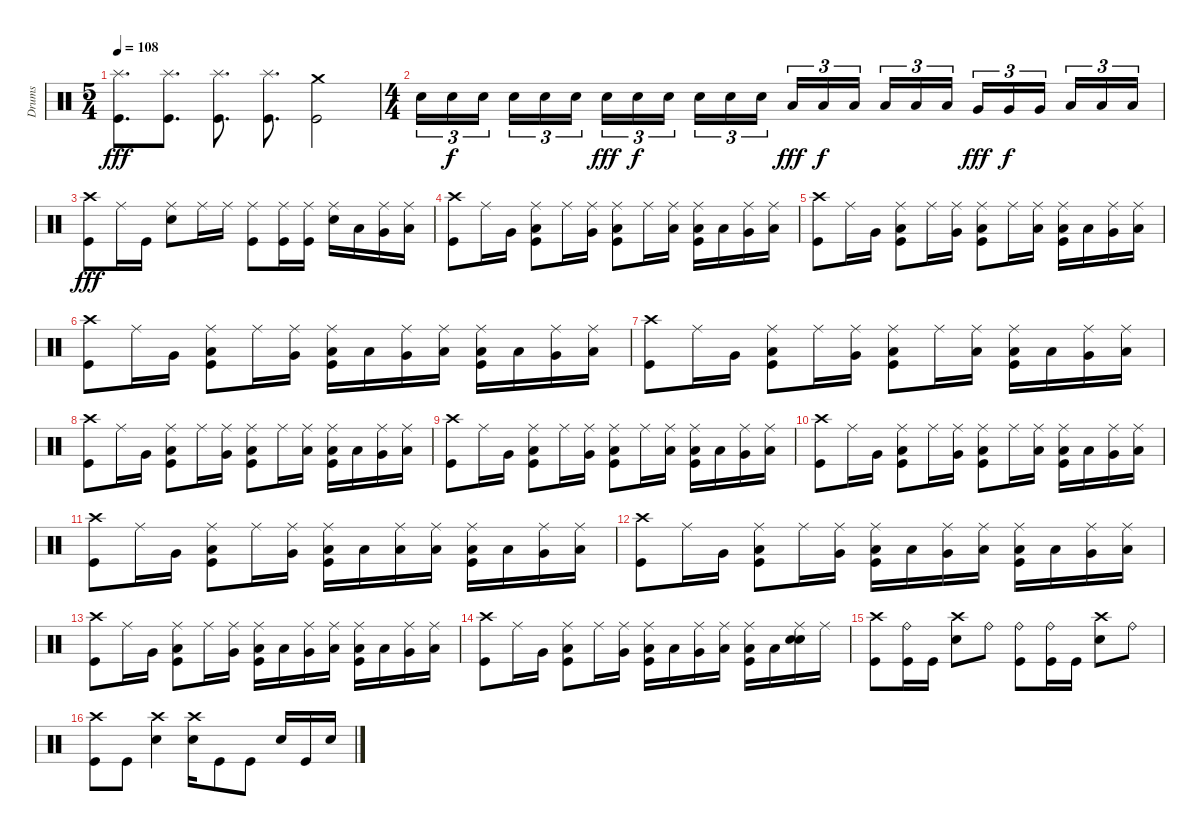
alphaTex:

\track ("Drums" "Drums") {instrument percussion}
\staff {score}
\articulation defaults
\ts (5 4)
\tempo 108
\clef neutral
\ks c
("Splash (hit)" "Kick (hit)").8{d dy fff} ("Splash (hit)" "Kick (hit)").8{d} ("Splash (hit)" "Kick (hit)").8{d} ("Splash (hit)" "Kick (hit)").8{d} ("Crash medium (hit)" "Kick (hit)").2 |
\ts (4 4)
"Electric Snare (hit)".16{tu (3 2)} "Electric Snare (hit)".16{tu (3 2) dy f} "Electric Snare (hit)".16{tu (3 2)} "Electric Snare (hit)".16{tu (3 2)} "Electric Snare (hit)".16{tu (3 2)} "Electric Snare (hit)".16{tu (3 2)} "Electric Snare (hit)".16{tu (3 2) dy fff} "Electric Snare (hit)".16{tu (3 2) dy f} "Electric Snare (hit)".16{tu (3 2)} "Electric Snare (hit)".16{tu (3 2)} "Electric Snare (hit)".16{tu (3 2)} "Electric Snare (hit)".16{tu (3 2)} "Low Tom (hit)".16{tu (3 2) dy fff} "Low Tom (hit)".16{tu (3 2) dy f} "Low Tom (hit)".16{tu (3 2)} "Low Tom (hit)".16{tu (3 2)} "Low Tom (hit)".16{tu (3 2)} "Low Tom (hit)".16{tu (3 2)} "Very Low Tom (hit)".16{tu (3 2) dy fff} "Very Low Tom (hit)".16{tu (3 2) dy f} "Very Low Tom (hit)".16{tu (3 2)} "Low Floor Tom (hit)".16{tu (3 2)} "Low Floor Tom (hit)".16{tu (3 2)} "Low Floor Tom (hit)".16{tu (3 2)} |
("Crash high (hit)" "Kick (hit)").8{dy fff} "Ride (middle)".16 "Kick (hit)".16 ("Ride (middle)" "Snare (hit) 2").8 "Ride (middle)".16 "Ride (middle)".16 ("Ride (middle)" "Kick (hit)").8 ("Ride (middle)" "Kick (hit)").16 ("Ride (middle)" "Kick (hit)").16 ("Ride (middle)" "Snare (hit) 2").16 "Low Tom (hit)".16 ("Ride (middle)" "Very Low Tom (hit)").16 ("Ride (middle)" "Low Floor Tom (hit)").16 |
("Crash high (hit)" "Kick (hit)").8 "Ride (middle)".16 "Very Low Tom (hit)".16 ("Ride (middle)" "Low Tom (hit)" "Kick (hit)").8 "Ride (middle)".16 ("Ride (middle)" "Very Low Tom (hit)").16 ("Ride (middle)" "Low Tom (hit)" "Kick (hit)").8 "Ride (middle)".16 ("Ride (middle)" "Low Tom (hit)").16 ("Ride (middle)" "Low Tom (hit)" "Kick (hit)").16 "Low Tom (hit)".16 ("Ride (middle)" "Very Low Tom (hit)").16 ("Ride (middle)" "Low Floor Tom (hit)").16 |
("Crash high (hit)" "Kick (hit)").8 "Ride (middle)".16 "Very Low Tom (hit)".16 ("Ride (middle)" "Low Tom (hit)" "Kick (hit)").8 "Ride (middle)".16 ("Ride (middle)" "Very Low Tom (hit)").16 ("Ride (middle)" "Low Tom (hit)" "Kick (hit)").8 "Ride (middle)".16 ("Ride (middle)" "Low Tom (hit)").16 ("Ride (middle)" "Low Tom (hit)" "Kick (hit)").16 "Low Tom (hit)".16 ("Ride (middle)" "Very Low Tom (hit)").16 ("Ride (middle)" "Low Floor Tom (hit)").16 |
("Crash high (hit)" "Kick (hit)").8 "Ride (middle)".16 "Very Low Tom (hit)".16 ("Ride (middle)" "Low Tom (hit)" "Kick (hit)").8 "Ride (middle)".16 ("Ride (middle)" "Very Low Tom (hit)").16 ("Ride (middle)" "Low Tom (hit)" "Kick (hit)").16 "Low Tom (hit)".16 ("Ride (middle)" "Very Low Tom (hit)").16 ("Ride (middle)" "Low Floor Tom (hit)").16 ("Ride (middle)" "Low Tom (hit)" "Kick (hit)").16 "Low Tom (hit)".16 ("Ride (middle)" "Very Low Tom (hit)").16 ("Ride (middle)" "Low Floor Tom (hit)").16 |
("Crash high (hit)" "Kick (hit)").8 "Ride (middle)".16 "Very Low Tom (hit)".16 ("Ride (middle)" "Low Tom (hit)" "Kick (hit)").8 "Ride (middle)".16 ("Ride (middle)" "Very Low Tom (hit)").16 ("Ride (middle)" "Low Tom (hit)" "Kick (hit)").8 "Ride (middle)".16 ("Ride (middle)" "Low Tom (hit)").16 ("Ride (middle)" "Low Tom (hit)" "Kick (hit)").16 "Low Tom (hit)".16 ("Ride (middle)" "Very Low Tom (hit)").16 ("Ride (middle)" "Low Floor Tom (hit)").16 |
("Crash high (hit)" "Kick (hit)").8 "Ride (middle)".16 "Very Low Tom (hit)".16 ("Ride (middle)" "Low Tom (hit)" "Kick (hit)").8 "Ride (middle)".16 ("Ride (middle)" "Very Low Tom (hit)").16 ("Ride (middle)" "Low Tom (hit)" "Kick (hit)").8 "Ride (middle)".16 ("Ride (middle)" "Low Tom (hit)").16 ("Ride (middle)" "Low Tom (hit)" "Kick (hit)").16 "Low Tom (hit)".16 ("Ride (middle)" "Very Low Tom (hit)").16 ("Ride (middle)" "Low Floor Tom (hit)").16 |
("Crash high (hit)" "Kick (hit)").8 "Ride (middle)".16 "Very Low Tom (hit)".16 ("Ride (middle)" "Low Tom (hit)" "Kick (hit)").8 "Ride (middle)".16 ("Ride (middle)" "Very Low Tom (hit)").16 ("Ride (middle)" "Low Tom (hit)" "Kick (hit)").8 "Ride (middle)".16 ("Ride (middle)" "Low Tom (hit)").16 ("Ride (middle)" "Low Tom (hit)" "Kick (hit)").16 "Low Tom (hit)".16 ("Ride (middle)" "Very Low Tom (hit)").16 ("Ride (middle)" "Low Floor Tom (hit)").16 |
("Crash high (hit)" "Kick (hit)").8 "Ride (middle)".16 "Very Low Tom (hit)".16 ("Ride (middle)" "Low Tom (hit)" "Kick (hit)").8 "Ride (middle)".16 ("Ride (middle)" "Very Low Tom (hit)").16 ("Ride (middle)" "Low Tom (hit)" "Kick (hit)").8 "Ride (middle)".16 ("Ride (middle)" "Low Tom (hit)").16 ("Ride (middle)" "Low Tom (hit)" "Kick (hit)").16 "Low Tom (hit)".16 ("Ride (middle)" "Very Low Tom (hit)").16 ("Ride (middle)" "Low Floor Tom (hit)").16 |
("Crash high (hit)" "Kick (hit)").8 "Ride (middle)".16 "Very Low Tom (hit)".16 ("Ride (middle)" "Low Tom (hit)" "Kick (hit)").8 "Ride (middle)".16 ("Ride (middle)" "Very Low Tom (hit)").16 ("Ride (middle)" "Low Tom (hit)" "Kick (hit)").16 "Low Tom (hit)".16 ("Ride (middle)" "Low Tom (hit)").16 ("Ride (middle)" "Low Tom (hit)").16 ("Ride (middle)" "Low Tom (hit)" "Kick (hit)").16 "Low Tom (hit)".16 ("Ride (middle)" "Very Low Tom (hit)").16 ("Ride (middle)" "Low Floor Tom (hit)").16 |
("Crash high (hit)" "Kick (hit)").8 "Ride (middle)".16 "Very Low Tom (hit)".16 ("Ride (middle)" "Low Tom (hit)" "Kick (hit)").8 "Ride (middle)".16 ("Ride (middle)" "Very Low Tom (hit)").16 ("Ride (middle)" "Low Tom (hit)" "Kick (hit)").16 "Low Tom (hit)".16 ("Ride (middle)" "Very Low Tom (hit)").16 ("Ride (middle)" "Low Floor Tom (hit)").16 ("Ride (middle)" "Low Tom (hit)" "Kick (hit)").16 "Low Tom (hit)".16 ("Ride (middle)" "Very Low Tom (hit)").16 ("Ride (middle)" "Low Floor Tom (hit)").16 |
("Crash high (hit)" "Kick (hit)").8 "Ride (middle)".16 "Very Low Tom (hit)".16 ("Ride (middle)" "Low Tom (hit)" "Kick (hit)").8 "Ride (middle)".16 ("Ride (middle)" "Very Low Tom (hit)").16 ("Ride (middle)" "Low Tom (hit)" "Kick (hit)").16 "Low Tom (hit)".16 ("Ride (middle)" "Very Low Tom (hit)").16 ("Ride (middle)" "Low Floor Tom (hit)").16 ("Ride (middle)" "Low Tom (hit)" "Kick (hit)").16 "Low Tom (hit)".16 ("Ride (middle)" "Very Low Tom (hit)").16 ("Ride (middle)" "Low Floor Tom (hit)").16 |
("Crash high (hit)" "Kick (hit)").8 "Ride (middle)".16 "Very Low Tom (hit)".16 ("Ride (middle)" "Low Tom (hit)" "Kick (hit)").8 "Ride (middle)".16 ("Ride (middle)" "Very Low Tom (hit)").16 ("Ride (middle)" "Low Tom (hit)" "Kick (hit)").16 "Low Tom (hit)".16 ("Ride (middle)" "Very Low Tom (hit)").16 ("Ride (middle)" "Low Floor Tom (hit)").16 ("Ride (middle)" "Low Tom (hit)" "Kick (hit)").16 "Low Tom (hit)".16 ("Ride (middle)" "Electric Snare (hit)" "Snare (hit) 2").16 "Ride (middle)".16 |
("Crash high (hit)" "Kick (hit)").8 ("Ride (bell)" "Kick (hit)").16 "Kick (hit)".16 ("Crash high (hit)" "Snare (hit) 2").8 "Ride (bell)".8 ("Ride (bell)" "Kick (hit)").8 ("Ride (bell)" "Kick (hit)").16 "Kick (hit)".16 ("Crash high (hit)" "Snare (hit) 2").8 "Ride (bell)".8 |
("Crash high (hit)" "Kick (hit)").8 "Kick (hit)".8 ("Crash high (hit)" "Snare (hit) 2").4 ("Crash high (hit)" "Snare (hit) 2").16 "Kick (hit)".8 "Kick (hit)".8 "Snare (hit) 2".16 "Kick (hit)".16 "Snare (hit) 2".16
